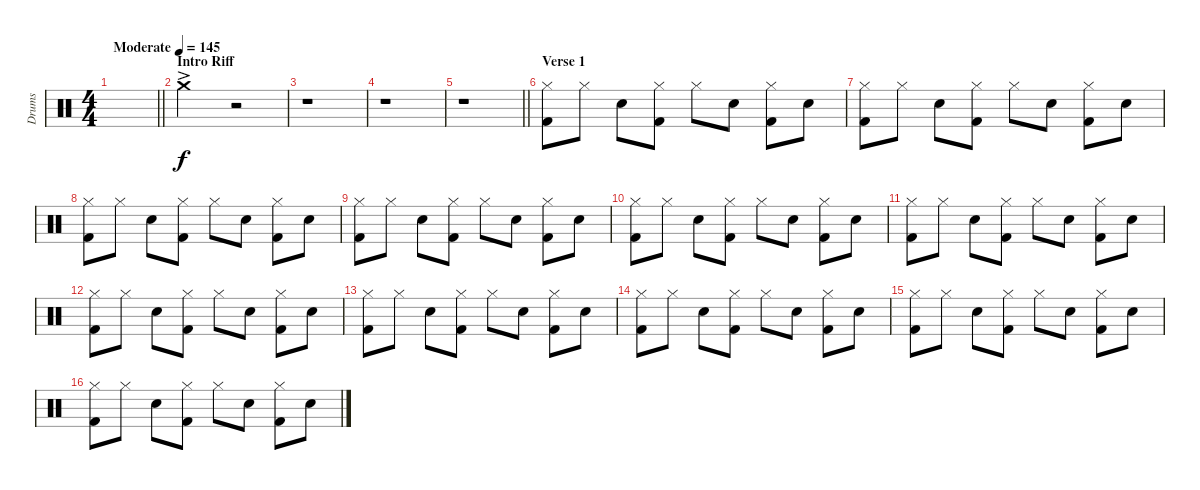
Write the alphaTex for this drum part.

\track ("Drums" "Drums") {instrument percussion}
\staff {score}
\articulation defaults
\ts (4 4)
\tempo (145 "Moderate")
\clef neutral
\barLineRight lightlight
\ks c
|
\section ("" "Intro Riff")
"Crash medium (hit)"{ac}.2 r.2 |
r.1 |
r.1 |
\barLineRight lightlight
r.1 |
\section ("" "Verse 1")
("Hi-Hat (closed)" "Kick (hit) 2").8{dy f} "Hi-Hat (closed)".8 "Snare (hit) 2".8 ("Hi-Hat (closed)" "Kick (hit) 2").8 "Hi-Hat (closed)".8 "Snare (hit) 2".8 ("Hi-Hat (closed)" "Kick (hit) 2").8 "Snare (hit) 2".8 |
("Hi-Hat (closed)" "Kick (hit) 2").8 "Hi-Hat (closed)".8 "Snare (hit) 2".8 ("Hi-Hat (closed)" "Kick (hit) 2").8 "Hi-Hat (closed)".8 "Snare (hit) 2".8 ("Hi-Hat (closed)" "Kick (hit) 2").8 "Snare (hit) 2".8 |
("Hi-Hat (closed)" "Kick (hit) 2").8 "Hi-Hat (closed)".8 "Snare (hit) 2".8 ("Hi-Hat (closed)" "Kick (hit) 2").8 "Hi-Hat (closed)".8 "Snare (hit) 2".8 ("Hi-Hat (closed)" "Kick (hit) 2").8 "Snare (hit) 2".8 |
("Hi-Hat (closed)" "Kick (hit) 2").8 "Hi-Hat (closed)".8 "Snare (hit) 2".8 ("Hi-Hat (closed)" "Kick (hit) 2").8 "Hi-Hat (closed)".8 "Snare (hit) 2".8 ("Hi-Hat (closed)" "Kick (hit) 2").8 "Snare (hit) 2".8 |
("Hi-Hat (closed)" "Kick (hit) 2").8 "Hi-Hat (closed)".8 "Snare (hit) 2".8 ("Hi-Hat (closed)" "Kick (hit) 2").8 "Hi-Hat (closed)".8 "Snare (hit) 2".8 ("Hi-Hat (closed)" "Kick (hit) 2").8 "Snare (hit) 2".8 |
("Hi-Hat (closed)" "Kick (hit) 2").8 "Hi-Hat (closed)".8 "Snare (hit) 2".8 ("Hi-Hat (closed)" "Kick (hit) 2").8 "Hi-Hat (closed)".8 "Snare (hit) 2".8 ("Hi-Hat (closed)" "Kick (hit) 2").8 "Snare (hit) 2".8 |
("Hi-Hat (closed)" "Kick (hit) 2").8 "Hi-Hat (closed)".8 "Snare (hit) 2".8 ("Hi-Hat (closed)" "Kick (hit) 2").8 "Hi-Hat (closed)".8 "Snare (hit) 2".8 ("Hi-Hat (closed)" "Kick (hit) 2").8 "Snare (hit) 2".8 |
("Hi-Hat (closed)" "Kick (hit) 2").8 "Hi-Hat (closed)".8 "Snare (hit) 2".8 ("Hi-Hat (closed)" "Kick (hit) 2").8 "Hi-Hat (closed)".8 "Snare (hit) 2".8 ("Hi-Hat (closed)" "Kick (hit) 2").8 "Snare (hit) 2".8 |
("Hi-Hat (closed)" "Kick (hit) 2").8 "Hi-Hat (closed)".8 "Snare (hit) 2".8 ("Hi-Hat (closed)" "Kick (hit) 2").8 "Hi-Hat (closed)".8 "Snare (hit) 2".8 ("Hi-Hat (closed)" "Kick (hit) 2").8 "Snare (hit) 2".8 |
("Hi-Hat (closed)" "Kick (hit) 2").8 "Hi-Hat (closed)".8 "Snare (hit) 2".8 ("Hi-Hat (closed)" "Kick (hit) 2").8 "Hi-Hat (closed)".8 "Snare (hit) 2".8 ("Hi-Hat (closed)" "Kick (hit) 2").8 "Snare (hit) 2".8 |
("Hi-Hat (closed)" "Kick (hit) 2").8 "Hi-Hat (closed)".8 "Snare (hit) 2".8 ("Hi-Hat (closed)" "Kick (hit) 2").8 "Hi-Hat (closed)".8 "Snare (hit) 2".8 ("Hi-Hat (closed)" "Kick (hit) 2").8 "Snare (hit) 2".8
